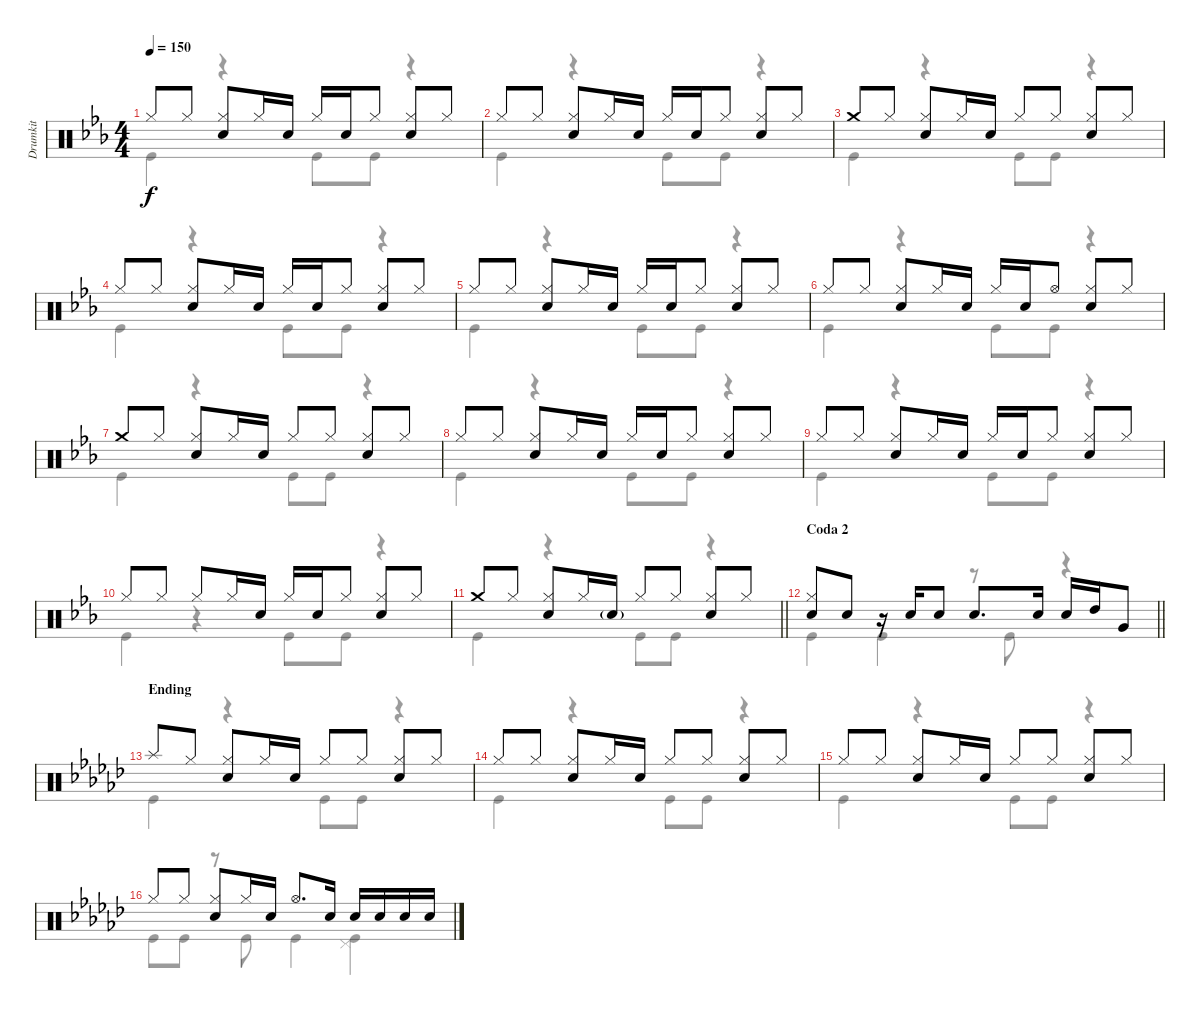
\track ("Drumkit" "Drumkit") {instrument percussion}
\staff {score}
\articulation defaults
\voice
\ts (4 4)
\tempo 150
\clef neutral
\ks eb "Hi-Hat (closed)".8{dy f} "Hi-Hat (closed)".8
("Hi-Hat (closed)" "Snare (hit) 2").8 "Hi-Hat (closed)".16 "Snare (hit) 2".16 "Hi-Hat (closed)".16 "Snare (hit) 2".16 "Hi-Hat (closed)".8 ("Hi-Hat (closed)" "Snare (hit) 2").8 "Hi-Hat (closed)".8 |
"Hi-Hat (closed)".8 "Hi-Hat (closed)".8 ("Hi-Hat (closed)" "Snare (hit) 2").8 "Hi-Hat (closed)".16 "Snare (hit) 2".16 "Hi-Hat (closed)".16 "Snare (hit) 2".16 "Hi-Hat (closed)".8 ("Snare (hit) 2" "Hi-Hat (closed)").8 "Hi-Hat (closed)".8 |
"Crash medium (hit)".8 "Hi-Hat (closed)".8 ("Hi-Hat (closed)" "Snare (hit) 2").8 "Hi-Hat (closed)".16 "Snare (hit) 2".16 "Hi-Hat (closed)".8 "Hi-Hat (closed)".8 ("Hi-Hat (closed)" "Snare (hit) 2").8 "Hi-Hat (closed)".8 |
"Hi-Hat (closed)".8 "Hi-Hat (closed)".8 ("Hi-Hat (closed)" "Snare (hit) 2").8 "Hi-Hat (closed)".16 "Snare (hit) 2".16 "Hi-Hat (closed)".16 "Snare (hit) 2".16 "Hi-Hat (closed)".8 ("Hi-Hat (closed)" "Snare (hit) 2").8 "Hi-Hat (closed)".8 |
"Hi-Hat (closed)".8 "Hi-Hat (closed)".8 ("Hi-Hat (closed)" "Snare (hit) 2").8 "Hi-Hat (closed)".16 "Snare (hit) 2".16 "Hi-Hat (closed)".16 "Snare (hit) 2".16 "Hi-Hat (closed)".8 ("Hi-Hat (closed)" "Snare (hit) 2").8 "Hi-Hat (closed)".8 |
"Hi-Hat (closed)".8 "Hi-Hat (closed)".8 ("Hi-Hat (closed)" "Snare (hit) 2").8 "Hi-Hat (closed)".16 "Snare (hit) 2".16 "Hi-Hat (closed)".16 "Snare (hit) 2".16 "Hi-Hat (open)".8 ("Hi-Hat (closed)" "Snare (hit) 2").8 "Hi-Hat (closed)".8 |
"Crash medium (hit)".8 "Hi-Hat (closed)".8 ("Hi-Hat (closed)" "Snare (hit) 2").8 "Hi-Hat (closed)".16 "Snare (hit) 2".16 "Hi-Hat (closed)".8 "Hi-Hat (closed)".8 ("Hi-Hat (closed)" "Snare (hit) 2").8 "Hi-Hat (closed)".8 |
"Hi-Hat (closed)".8 "Hi-Hat (closed)".8 ("Hi-Hat (closed)" "Snare (hit) 2").8 "Hi-Hat (closed)".16 "Snare (hit) 2".16 "Hi-Hat (closed)".16 "Snare (hit) 2".16 "Hi-Hat (closed)".8 ("Hi-Hat (closed)" "Snare (hit) 2").8 "Hi-Hat (closed)".8 |
"Hi-Hat (closed)".8 "Hi-Hat (closed)".8 ("Hi-Hat (closed)" "Snare (hit) 2").8 "Hi-Hat (closed)".16 "Snare (hit) 2".16 "Hi-Hat (closed)".16 "Snare (hit) 2".16 "Hi-Hat (closed)".8 ("Hi-Hat (closed)" "Snare (hit) 2").8 "Hi-Hat (closed)".8 |
"Hi-Hat (closed)".8 "Hi-Hat (closed)".8 "Hi-Hat (closed)".8 "Hi-Hat (closed)".16 "Snare (hit) 2".16 "Hi-Hat (closed)".16 "Snare (hit) 2".16 "Hi-Hat (closed)".8 ("Hi-Hat (closed)" "Snare (hit) 2").8 "Hi-Hat (closed)".8 |
\barLineRight lightlight "Crash medium (hit)".8 "Hi-Hat (closed)".8
("Hi-Hat (closed)" "Snare (hit) 2").8 "Hi-Hat (closed)".16 "Snare (hit) 2"{g}.16 "Hi-Hat (closed)".8 "Hi-Hat (closed)".8 ("Hi-Hat (closed)" "Snare (hit) 2").8 "Hi-Hat (closed)".8 |
\section ("" "Coda 2")
\barLineRight lightlight
("Snare (hit) 2" "Hi-Hat (closed)").8 "Snare (hit) 2".8 r.16 "Snare (hit) 2".16 "Snare (hit) 2".8 "Snare (hit) 2".8{d} "Snare (hit) 2".16 "Snare (hit) 2".16 "High Tom (hit)".16 "Very Low Tom (hit)".8 |
\section ("" "Ending")
\ks ebminor "Splash (hit)".8 "Hi-Hat (closed)".8
("Hi-Hat (closed)" "Snare (hit) 2").8 "Hi-Hat (closed)".16 "Snare (hit) 2".16 "Hi-Hat (closed)".8 "Hi-Hat (closed)".8 ("Hi-Hat (closed)" "Snare (hit) 2").8 "Hi-Hat (closed)".8 |
"Hi-Hat (closed)".8 "Hi-Hat (closed)".8 ("Hi-Hat (closed)" "Snare (hit) 2").8 "Hi-Hat (closed)".16 "Snare (hit) 2".16 "Hi-Hat (closed)".8 "Hi-Hat (closed)".8 ("Hi-Hat (closed)" "Snare (hit) 2").8 "Hi-Hat (closed)".8 |
"Hi-Hat (closed)".8 "Hi-Hat (closed)".8 ("Hi-Hat (closed)" "Snare (hit) 2").8 "Hi-Hat (closed)".16 "Snare (hit) 2".16 "Hi-Hat (closed)".8 "Hi-Hat (closed)".8 ("Hi-Hat (closed)" "Snare (hit) 2").8 "Hi-Hat (closed)".8 |
"Hi-Hat (closed)".8 "Hi-Hat (closed)".8 ("Hi-Hat (closed)" "Snare (hit) 2").8 "Hi-Hat (closed)".16 "Snare (hit) 2".16 "Hi-Hat (open)".8{d} "Snare (hit) 2".16 "Snare (hit) 2".16 "Snare (hit) 2".16 "Snare (hit) 2".16 "Snare (hit) 2".16
\voice
\clef neutral
\ottava regular
\simile none
\ks eb "Kick (hit)".4{dy f}
r.4 "Kick (hit)".8 "Kick (hit)".8 r.4 |
"Kick (hit)".4 r.4 "Kick (hit)".8 "Kick (hit)".8 r.4 |
"Kick (hit)".4 r.4 "Kick (hit)".8 "Kick (hit)".8 r.4 |
"Kick (hit)".4 r.4 "Kick (hit)".8 "Kick (hit)".8 r.4 |
"Kick (hit)".4 r.4 "Kick (hit)".8 "Kick (hit)".8 r.4 |
"Kick (hit)".4 r.4 "Kick (hit)".8 "Kick (hit)".8 r.4 |
"Kick (hit)".4 r.4 "Kick (hit)".8 "Kick (hit)".8 r.4 |
"Kick (hit)".4 r.4 "Kick (hit)".8 "Kick (hit)".8 r.4 |
"Kick (hit)".4 r.4 "Kick (hit)".8 "Kick (hit)".8 r.4 |
"Kick (hit)".4 r.4 "Kick (hit)".8 "Kick (hit)".8 r.4 |
\barLineRight lightlight "Kick (hit)".4
r.4 "Kick (hit)".8 "Kick (hit)".8 r.4 |
\barLineRight lightlight "Kick (hit)".4 "Kick (hit)".4
r.8 "Kick (hit)".8 r.4 |
\ks ebminor "Kick (hit)".4
r.4 "Kick (hit)".8 "Kick (hit)".8 r.4 |
"Kick (hit)".4 r.4 "Kick (hit)".8 "Kick (hit)".8 r.4 |
"Kick (hit)".4 r.4 "Kick (hit)".8 "Kick (hit)".8 r.4 |
"Kick (hit)".8 "Kick (hit)".8 r.8 "Kick (hit)".8 "Kick (hit)".4 ("Kick (hit)" "Pedal Hi-Hat (hit)").4
